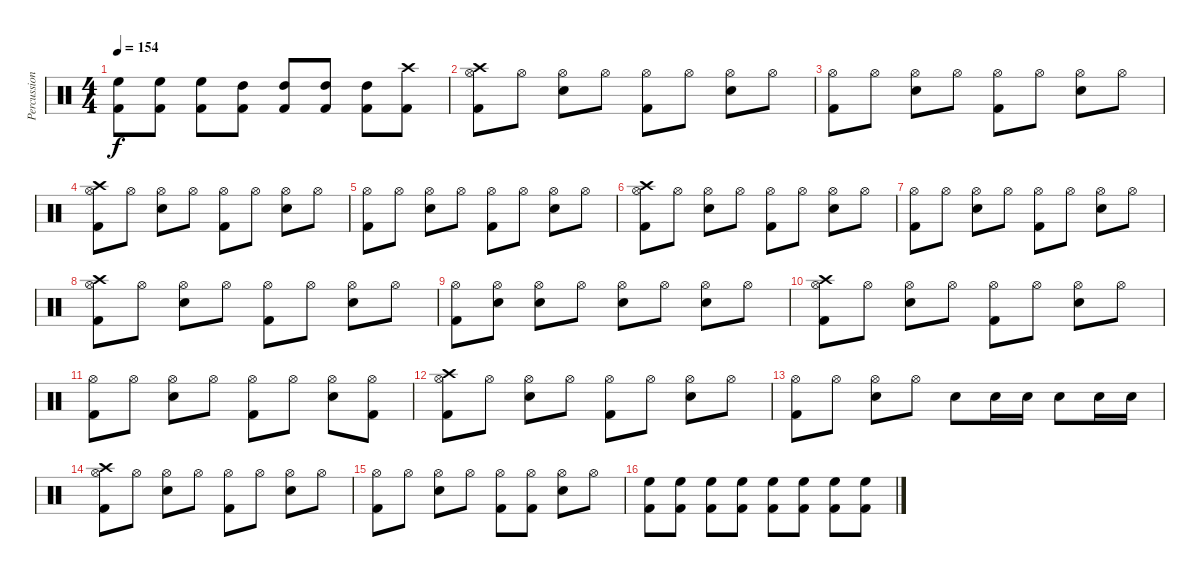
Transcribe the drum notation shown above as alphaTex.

\track ("Percussion" "Percussion") {instrument percussion}
\staff {score}
\articulation defaults
\ts (4 4)
\tempo 154
\clef neutral
\ks c
("High Floor Tom (hit)" "Kick (hit) 2").8{dy f} ("High Floor Tom (hit)" "Kick (hit) 2").8 ("High Floor Tom (hit)" "Kick (hit) 2").8 ("High Tom (hit)" "Kick (hit) 2").8 ("High Tom (hit)" "Kick (hit) 2").8 ("High Tom (hit)" "Kick (hit) 2").8 ("High Tom (hit)" "Kick (hit) 2").8 ("Crash high (hit)" "Kick (hit) 2").8 |
("Hi-Hat (open)" "Crash high (hit)" "Kick (hit) 2").8 "Hi-Hat (open)".8 ("Hi-Hat (open)" "Snare (hit) 2").8 "Hi-Hat (open)".8 ("Hi-Hat (open)" "Kick (hit) 2").8 "Hi-Hat (open)".8 ("Hi-Hat (open)" "Snare (hit) 2").8 "Hi-Hat (open)".8 |
("Hi-Hat (open)" "Kick (hit) 2").8 "Hi-Hat (open)".8 ("Hi-Hat (open)" "Snare (hit) 2").8 "Hi-Hat (open)".8 ("Hi-Hat (open)" "Kick (hit) 2").8 "Hi-Hat (open)".8 ("Hi-Hat (open)" "Snare (hit) 2").8 "Hi-Hat (open)".8 |
("Hi-Hat (open)" "Crash high (hit)" "Kick (hit) 2").8 "Hi-Hat (open)".8 ("Hi-Hat (open)" "Snare (hit) 2").8 "Hi-Hat (open)".8 ("Hi-Hat (open)" "Kick (hit) 2").8 "Hi-Hat (open)".8 ("Hi-Hat (open)" "Snare (hit) 2").8 "Hi-Hat (open)".8 |
("Hi-Hat (open)" "Kick (hit) 2").8 "Hi-Hat (open)".8 ("Hi-Hat (open)" "Snare (hit) 2").8 "Hi-Hat (open)".8 ("Hi-Hat (open)" "Kick (hit) 2").8 "Hi-Hat (open)".8 ("Hi-Hat (open)" "Snare (hit) 2").8 "Hi-Hat (open)".8 |
("Hi-Hat (open)" "Crash high (hit)" "Kick (hit) 2").8 "Hi-Hat (open)".8 ("Hi-Hat (open)" "Snare (hit) 2").8 "Hi-Hat (open)".8 ("Hi-Hat (open)" "Kick (hit) 2").8 "Hi-Hat (open)".8 ("Hi-Hat (open)" "Snare (hit) 2").8 "Hi-Hat (open)".8 |
("Hi-Hat (open)" "Kick (hit) 2").8 "Hi-Hat (open)".8 ("Hi-Hat (open)" "Snare (hit) 2").8 "Hi-Hat (open)".8 ("Hi-Hat (open)" "Kick (hit) 2").8 "Hi-Hat (open)".8 ("Hi-Hat (open)" "Snare (hit) 2").8 "Hi-Hat (open)".8 |
("Hi-Hat (open)" "Crash high (hit)" "Kick (hit) 2").8 "Hi-Hat (open)".8 ("Hi-Hat (open)" "Snare (hit) 2").8 "Hi-Hat (open)".8 ("Hi-Hat (open)" "Kick (hit) 2").8 "Hi-Hat (open)".8 ("Hi-Hat (open)" "Snare (hit) 2").8 "Hi-Hat (open)".8 |
("Hi-Hat (open)" "Kick (hit) 2").8 ("Hi-Hat (open)" "Snare (hit) 2").8 ("Hi-Hat (open)" "Snare (hit) 2").8 "Hi-Hat (open)".8 ("Hi-Hat (open)" "Snare (hit) 2").8 "Hi-Hat (open)".8 ("Hi-Hat (open)" "Snare (hit) 2").8 "Hi-Hat (open)".8 |
("Hi-Hat (open)" "Crash high (hit)" "Kick (hit) 2").8 "Hi-Hat (open)".8 ("Hi-Hat (open)" "Snare (hit) 2").8 "Hi-Hat (open)".8 ("Hi-Hat (open)" "Kick (hit) 2").8 "Hi-Hat (open)".8 ("Hi-Hat (open)" "Snare (hit) 2").8 "Hi-Hat (open)".8 |
("Hi-Hat (open)" "Kick (hit) 2").8 "Hi-Hat (open)".8 ("Hi-Hat (open)" "Snare (hit) 2").8 "Hi-Hat (open)".8 ("Hi-Hat (open)" "Kick (hit) 2").8 "Hi-Hat (open)".8 ("Hi-Hat (open)" "Snare (hit) 2").8 ("Hi-Hat (open)" "Kick (hit) 2").8 |
("Hi-Hat (open)" "Crash high (hit)" "Kick (hit) 2").8 "Hi-Hat (open)".8 ("Hi-Hat (open)" "Snare (hit) 2").8 "Hi-Hat (open)".8 ("Hi-Hat (open)" "Kick (hit) 2").8 "Hi-Hat (open)".8 ("Hi-Hat (open)" "Snare (hit) 2").8 "Hi-Hat (open)".8 |
("Hi-Hat (open)" "Kick (hit) 2").8 "Hi-Hat (open)".8 ("Hi-Hat (open)" "Snare (hit) 2").8 "Hi-Hat (open)".8 "Snare (hit) 2".8 "Snare (hit) 2".16 "Snare (hit) 2".16 "Snare (hit) 2".8 "Snare (hit) 2".16 "Snare (hit) 2".16 |
("Hi-Hat (open)" "Crash high (hit)" "Kick (hit) 2").8 "Hi-Hat (open)".8 ("Hi-Hat (open)" "Snare (hit) 2").8 "Hi-Hat (open)".8 ("Hi-Hat (open)" "Kick (hit) 2").8 "Hi-Hat (open)".8 ("Hi-Hat (open)" "Snare (hit) 2").8 "Hi-Hat (open)".8 |
("Hi-Hat (open)" "Kick (hit) 2").8 "Hi-Hat (open)".8 ("Hi-Hat (open)" "Snare (hit) 2").8 "Hi-Hat (open)".8 ("Hi-Hat (open)" "Kick (hit) 2").8 ("Hi-Hat (open)" "Kick (hit) 2").8 ("Hi-Hat (open)" "Snare (hit) 2").8 "Hi-Hat (open)".8 |
("High Floor Tom (hit)" "Kick (hit) 2").8 ("High Floor Tom (hit)" "Kick (hit) 2").8 ("High Floor Tom (hit)" "Kick (hit) 2").8 ("High Floor Tom (hit)" "Kick (hit) 2").8 ("High Floor Tom (hit)" "Kick (hit) 2").8 ("High Floor Tom (hit)" "Kick (hit) 2").8 ("High Floor Tom (hit)" "Kick (hit) 2").8 ("High Floor Tom (hit)" "Kick (hit) 2").8
